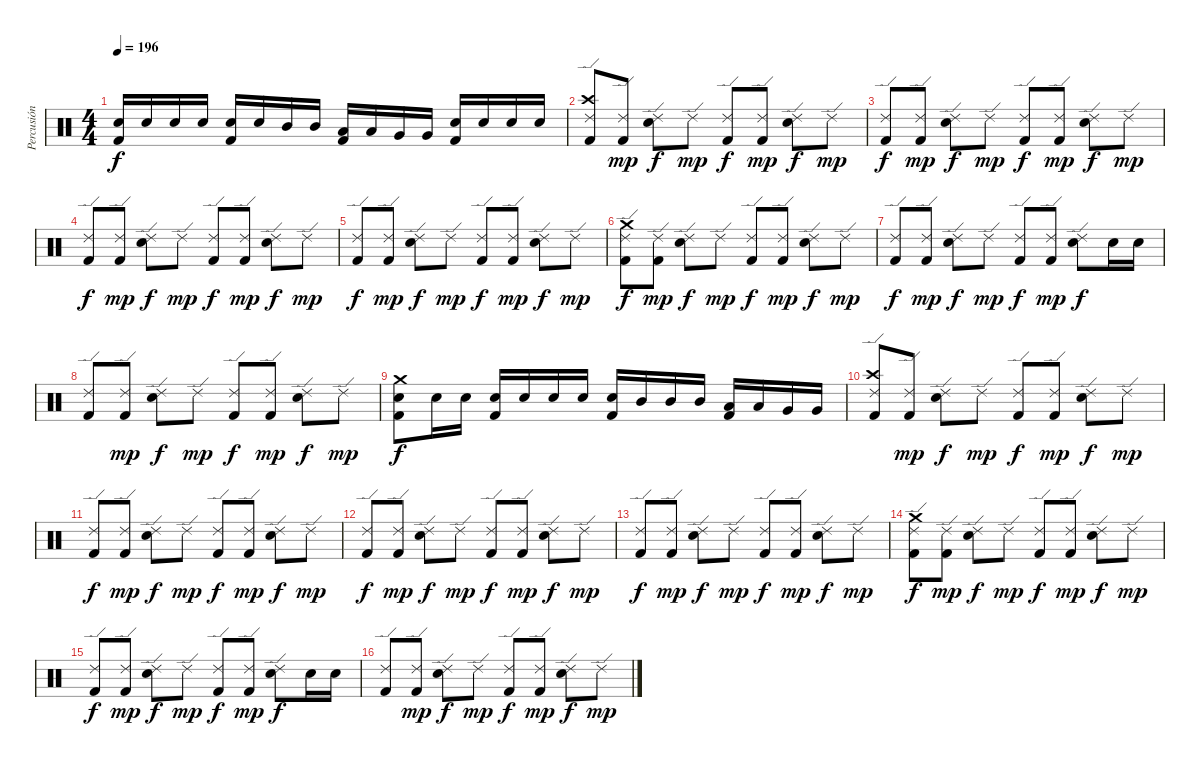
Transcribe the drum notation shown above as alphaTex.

\track ("Percusión" "Percusión") {instrument percussion}
\staff {score}
\articulation defaults
\ts (4 4)
\tempo 196
\clef neutral
\ks c
("Electric Snare (hit)" "Kick (hit) 2").16{dy f} "Electric Snare (hit)".16 "Electric Snare (hit)".16 "Electric Snare (hit)".16 ("Electric Snare (hit)" "Kick (hit) 2").16 "Electric Snare (hit)".16 "Mid Tom (hit)".16 "Mid Tom (hit)".16 ("Low Tom (hit)" "Kick (hit) 2").16 "Low Tom (hit)".16 "Very Low Tom (hit)".16 "Very Low Tom (hit)".16 ("Electric Snare (hit)" "Kick (hit) 2").16 "Electric Snare (hit)".16 "Electric Snare (hit)".16 "Electric Snare (hit)".16 |
("Crash high (hit)" "Ride (edge) 2" "Kick (hit) 2").8 ("Ride (edge) 2" "Kick (hit) 2").8{dy mp} ("Ride (edge) 2" "Electric Snare (hit)").8{dy f} "Ride (edge) 2".8{dy mp} ("Ride (edge) 2" "Kick (hit) 2").8{dy f} ("Ride (edge) 2" "Kick (hit) 2").8{dy mp} ("Ride (edge) 2" "Electric Snare (hit)").8{dy f} "Ride (edge) 2".8{dy mp} |
("Ride (edge) 2" "Kick (hit) 2").8{dy f} ("Ride (edge) 2" "Kick (hit) 2").8{dy mp} ("Ride (edge) 2" "Electric Snare (hit)").8{dy f} "Ride (edge) 2".8{dy mp} ("Ride (edge) 2" "Kick (hit) 2").8{dy f} ("Ride (edge) 2" "Kick (hit) 2").8{dy mp} ("Ride (edge) 2" "Electric Snare (hit)").8{dy f} "Ride (edge) 2".8{dy mp} |
("Ride (edge) 2" "Kick (hit) 2").8{dy f} ("Ride (edge) 2" "Kick (hit) 2").8{dy mp} ("Ride (edge) 2" "Electric Snare (hit)").8{dy f} "Ride (edge) 2".8{dy mp} ("Ride (edge) 2" "Kick (hit) 2").8{dy f} ("Ride (edge) 2" "Kick (hit) 2").8{dy mp} ("Ride (edge) 2" "Electric Snare (hit)").8{dy f} "Ride (edge) 2".8{dy mp} |
("Ride (edge) 2" "Kick (hit) 2").8{dy f} ("Ride (edge) 2" "Kick (hit) 2").8{dy mp} ("Ride (edge) 2" "Electric Snare (hit)").8{dy f} "Ride (edge) 2".8{dy mp} ("Ride (edge) 2" "Kick (hit) 2").8{dy f} ("Ride (edge) 2" "Kick (hit) 2").8{dy mp} ("Ride (edge) 2" "Electric Snare (hit)").8{dy f} "Ride (edge) 2".8{dy mp} |
("Crash medium (hit)" "Ride (edge) 2" "Kick (hit) 2").8{dy f} ("Ride (edge) 2" "Kick (hit) 2").8{dy mp} ("Ride (edge) 2" "Electric Snare (hit)").8{dy f} "Ride (edge) 2".8{dy mp} ("Ride (edge) 2" "Kick (hit) 2").8{dy f} ("Ride (edge) 2" "Kick (hit) 2").8{dy mp} ("Ride (edge) 2" "Electric Snare (hit)").8{dy f} "Ride (edge) 2".8{dy mp} |
("Ride (edge) 2" "Kick (hit) 2").8{dy f} ("Ride (edge) 2" "Kick (hit) 2").8{dy mp} ("Ride (edge) 2" "Electric Snare (hit)").8{dy f} "Ride (edge) 2".8{dy mp} ("Ride (edge) 2" "Kick (hit) 2").8{dy f} ("Ride (edge) 2" "Kick (hit) 2").8{dy mp} ("Ride (edge) 2" "Electric Snare (hit)").8{dy f} "Electric Snare (hit)".16 "Electric Snare (hit)".16 |
("Ride (edge) 2" "Kick (hit) 2").8 ("Ride (edge) 2" "Kick (hit) 2").8{dy mp} ("Ride (edge) 2" "Electric Snare (hit)").8{dy f} "Ride (edge) 2".8{dy mp} ("Ride (edge) 2" "Kick (hit) 2").8{dy f} ("Ride (edge) 2" "Kick (hit) 2").8{dy mp} ("Ride (edge) 2" "Electric Snare (hit)").8{dy f} "Ride (edge) 2".8{dy mp} |
("Crash medium (hit)" "Electric Snare (hit)" "Kick (hit) 2").8{dy f} "Electric Snare (hit)".16 "Electric Snare (hit)".16 ("Electric Snare (hit)" "Kick (hit) 2").16 "Electric Snare (hit)".16 "Electric Snare (hit)".16 "Electric Snare (hit)".16 ("Electric Snare (hit)" "Kick (hit) 2").16 "Mid Tom (hit)".16 "Mid Tom (hit)".16 "Mid Tom (hit)".16 ("Low Tom (hit)" "Kick (hit) 2").16 "Low Tom (hit)".16 "Very Low Tom (hit)".16 "Very Low Tom (hit)".16 |
("Crash high (hit)" "Ride (edge) 2" "Kick (hit) 2").8 ("Ride (edge) 2" "Kick (hit) 2").8{dy mp} ("Ride (edge) 2" "Electric Snare (hit)").8{dy f} "Ride (edge) 2".8{dy mp} ("Ride (edge) 2" "Kick (hit) 2").8{dy f} ("Ride (edge) 2" "Kick (hit) 2").8{dy mp} ("Ride (edge) 2" "Electric Snare (hit)").8{dy f} "Ride (edge) 2".8{dy mp} |
("Ride (edge) 2" "Kick (hit) 2").8{dy f} ("Ride (edge) 2" "Kick (hit) 2").8{dy mp} ("Ride (edge) 2" "Electric Snare (hit)").8{dy f} "Ride (edge) 2".8{dy mp} ("Ride (edge) 2" "Kick (hit) 2").8{dy f} ("Ride (edge) 2" "Kick (hit) 2").8{dy mp} ("Ride (edge) 2" "Electric Snare (hit)").8{dy f} "Ride (edge) 2".8{dy mp} |
("Ride (edge) 2" "Kick (hit) 2").8{dy f} ("Ride (edge) 2" "Kick (hit) 2").8{dy mp} ("Ride (edge) 2" "Electric Snare (hit)").8{dy f} "Ride (edge) 2".8{dy mp} ("Ride (edge) 2" "Kick (hit) 2").8{dy f} ("Ride (edge) 2" "Kick (hit) 2").8{dy mp} ("Ride (edge) 2" "Electric Snare (hit)").8{dy f} "Ride (edge) 2".8{dy mp} |
("Ride (edge) 2" "Kick (hit) 2").8{dy f} ("Ride (edge) 2" "Kick (hit) 2").8{dy mp} ("Ride (edge) 2" "Electric Snare (hit)").8{dy f} "Ride (edge) 2".8{dy mp} ("Ride (edge) 2" "Kick (hit) 2").8{dy f} ("Ride (edge) 2" "Kick (hit) 2").8{dy mp} ("Ride (edge) 2" "Electric Snare (hit)").8{dy f} "Ride (edge) 2".8{dy mp} |
("Crash medium (hit)" "Ride (edge) 2" "Kick (hit) 2").8{dy f} ("Ride (edge) 2" "Kick (hit) 2").8{dy mp} ("Ride (edge) 2" "Electric Snare (hit)").8{dy f} "Ride (edge) 2".8{dy mp} ("Ride (edge) 2" "Kick (hit) 2").8{dy f} ("Ride (edge) 2" "Kick (hit) 2").8{dy mp} ("Ride (edge) 2" "Electric Snare (hit)").8{dy f} "Ride (edge) 2".8{dy mp} |
("Ride (edge) 2" "Kick (hit) 2").8{dy f} ("Ride (edge) 2" "Kick (hit) 2").8{dy mp} ("Ride (edge) 2" "Electric Snare (hit)").8{dy f} "Ride (edge) 2".8{dy mp} ("Ride (edge) 2" "Kick (hit) 2").8{dy f} ("Ride (edge) 2" "Kick (hit) 2").8{dy mp} ("Ride (edge) 2" "Electric Snare (hit)").8{dy f} "Electric Snare (hit)".16 "Electric Snare (hit)".16 |
("Ride (edge) 2" "Kick (hit) 2").8 ("Ride (edge) 2" "Kick (hit) 2").8{dy mp} ("Ride (edge) 2" "Electric Snare (hit)").8{dy f} "Ride (edge) 2".8{dy mp} ("Ride (edge) 2" "Kick (hit) 2").8{dy f} ("Ride (edge) 2" "Kick (hit) 2").8{dy mp} ("Ride (edge) 2" "Electric Snare (hit)").8{dy f} "Ride (edge) 2".8{dy mp}
